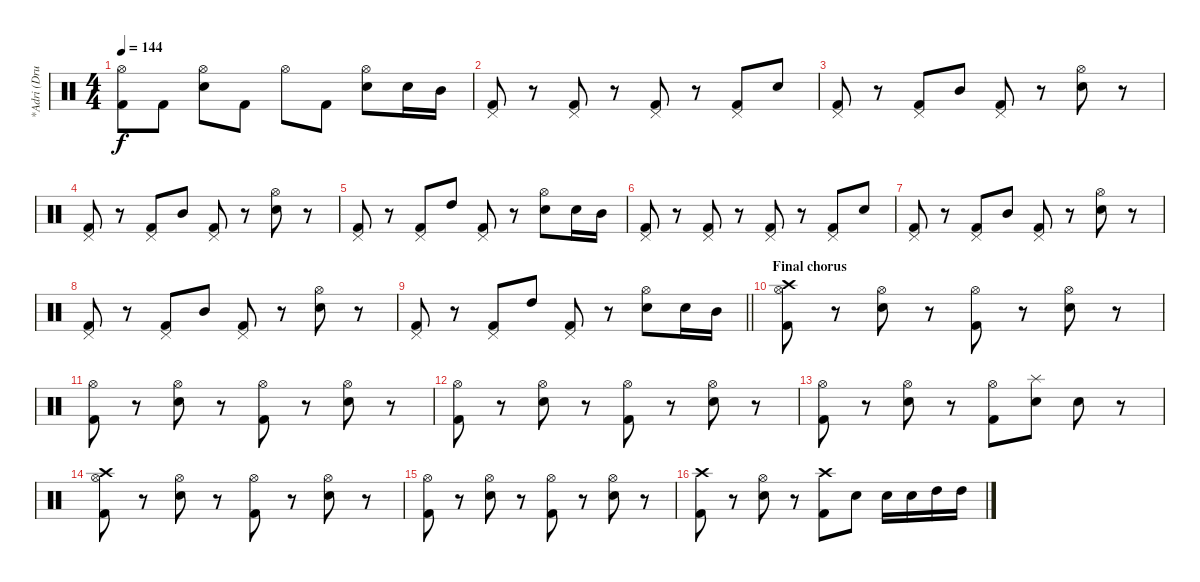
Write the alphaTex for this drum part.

\track ("*Adri (Drum)" "*Adri (Dru") {instrument percussion}
\staff {score}
\articulation defaults
\ts (4 4)
\tempo 144
\clef neutral
\ks c
("Hi-Hat (open)" "Kick (hit) 2").8{dy f} "Kick (hit) 2".8 ("Hi-Hat (open)" "Electric Snare (hit)").8 "Kick (hit) 2".8 "Hi-Hat (open)".8 "Kick (hit) 2".8 ("Hi-Hat (open)" "Electric Snare (hit)").8 "Electric Snare (hit)".16 "Mid Tom (hit)".16 |
("Pedal Hi-Hat (hit)" "Kick (hit) 2").8 r.8 ("Pedal Hi-Hat (hit)" "Kick (hit) 2").8 r.8 ("Pedal Hi-Hat (hit)" "Kick (hit) 2").8 r.8 ("Pedal Hi-Hat (hit)" "Kick (hit) 2").8 "Electric Snare (hit)".8 |
("Pedal Hi-Hat (hit)" "Kick (hit) 2").8 r.8 ("Pedal Hi-Hat (hit)" "Kick (hit) 2").8 "Mid Tom (hit)".8 ("Pedal Hi-Hat (hit)" "Kick (hit) 2").8 r.8 ("Hi-Hat (open)" "Electric Snare (hit)").8 r.8 |
("Pedal Hi-Hat (hit)" "Kick (hit) 2").8 r.8 ("Pedal Hi-Hat (hit)" "Kick (hit) 2").8 "Mid Tom (hit)".8 ("Pedal Hi-Hat (hit)" "Kick (hit) 2").8 r.8 ("Hi-Hat (open)" "Electric Snare (hit)").8 r.8 |
("Pedal Hi-Hat (hit)" "Kick (hit) 2").8 r.8 ("Pedal Hi-Hat (hit)" "Kick (hit) 2").8 "High Tom (hit)".8 ("Pedal Hi-Hat (hit)" "Kick (hit) 2").8 r.8 ("Hi-Hat (open)" "Electric Snare (hit)").8 "Electric Snare (hit)".16 "Mid Tom (hit)".16 |
("Pedal Hi-Hat (hit)" "Kick (hit) 2").8 r.8 ("Pedal Hi-Hat (hit)" "Kick (hit) 2").8 r.8 ("Pedal Hi-Hat (hit)" "Kick (hit) 2").8 r.8 ("Pedal Hi-Hat (hit)" "Kick (hit) 2").8 "Electric Snare (hit)".8 |
("Pedal Hi-Hat (hit)" "Kick (hit) 2").8 r.8 ("Pedal Hi-Hat (hit)" "Kick (hit) 2").8 "Mid Tom (hit)".8 ("Pedal Hi-Hat (hit)" "Kick (hit) 2").8 r.8 ("Hi-Hat (open)" "Electric Snare (hit)").8 r.8 |
("Pedal Hi-Hat (hit)" "Kick (hit) 2").8 r.8 ("Pedal Hi-Hat (hit)" "Kick (hit) 2").8 "Mid Tom (hit)".8 ("Pedal Hi-Hat (hit)" "Kick (hit) 2").8 r.8 ("Hi-Hat (open)" "Electric Snare (hit)").8 r.8 |
\barLineRight lightlight
("Pedal Hi-Hat (hit)" "Kick (hit) 2").8 r.8 ("Pedal Hi-Hat (hit)" "Kick (hit) 2").8 "High Tom (hit)".8 ("Pedal Hi-Hat (hit)" "Kick (hit) 2").8 r.8 ("Hi-Hat (open)" "Electric Snare (hit)").8 "Electric Snare (hit)".16 "Mid Tom (hit)".16 |
\section ("" "Final chorus")
("Crash high (hit)" "Hi-Hat (open)" "Kick (hit) 2").8 r.8 ("Hi-Hat (open)" "Electric Snare (hit)").8 r.8 ("Hi-Hat (open)" "Kick (hit) 2").8 r.8 ("Hi-Hat (open)" "Electric Snare (hit)").8 r.8 |
("Hi-Hat (open)" "Kick (hit) 2").8 r.8 ("Hi-Hat (open)" "Electric Snare (hit)").8 r.8 ("Hi-Hat (open)" "Kick (hit) 2").8 r.8 ("Hi-Hat (open)" "Electric Snare (hit)").8 r.8 |
("Hi-Hat (open)" "Kick (hit) 2").8 r.8 ("Hi-Hat (open)" "Electric Snare (hit)").8 r.8 ("Hi-Hat (open)" "Kick (hit) 2").8 r.8 ("Hi-Hat (open)" "Electric Snare (hit)").8 r.8 |
("Hi-Hat (open)" "Kick (hit) 2").8 r.8 ("Hi-Hat (open)" "Electric Snare (hit)").8 r.8 ("Hi-Hat (open)" "Kick (hit) 2").8 ("Splash (hit)" "Electric Snare (hit)").8 "Electric Snare (hit)".8 r.8 |
("Crash high (hit)" "Hi-Hat (open)" "Kick (hit) 2").8 r.8 ("Hi-Hat (open)" "Electric Snare (hit)").8 r.8 ("Hi-Hat (open)" "Kick (hit) 2").8 r.8 ("Hi-Hat (open)" "Electric Snare (hit)").8 r.8 |
("Hi-Hat (open)" "Kick (hit) 2").8 r.8 ("Hi-Hat (open)" "Electric Snare (hit)").8 r.8 ("Hi-Hat (open)" "Kick (hit) 2").8 r.8 ("Hi-Hat (open)" "Electric Snare (hit)").8 r.8 |
("Crash high (hit)" "Kick (hit) 2").8 r.8 ("Hi-Hat (open)" "Electric Snare (hit)").8 r.8 ("Crash high (hit)" "Kick (hit) 2").8 "Electric Snare (hit)".8 "Electric Snare (hit)".16 "Electric Snare (hit)".16 "High Tom (hit)".16 "High Tom (hit)".16
